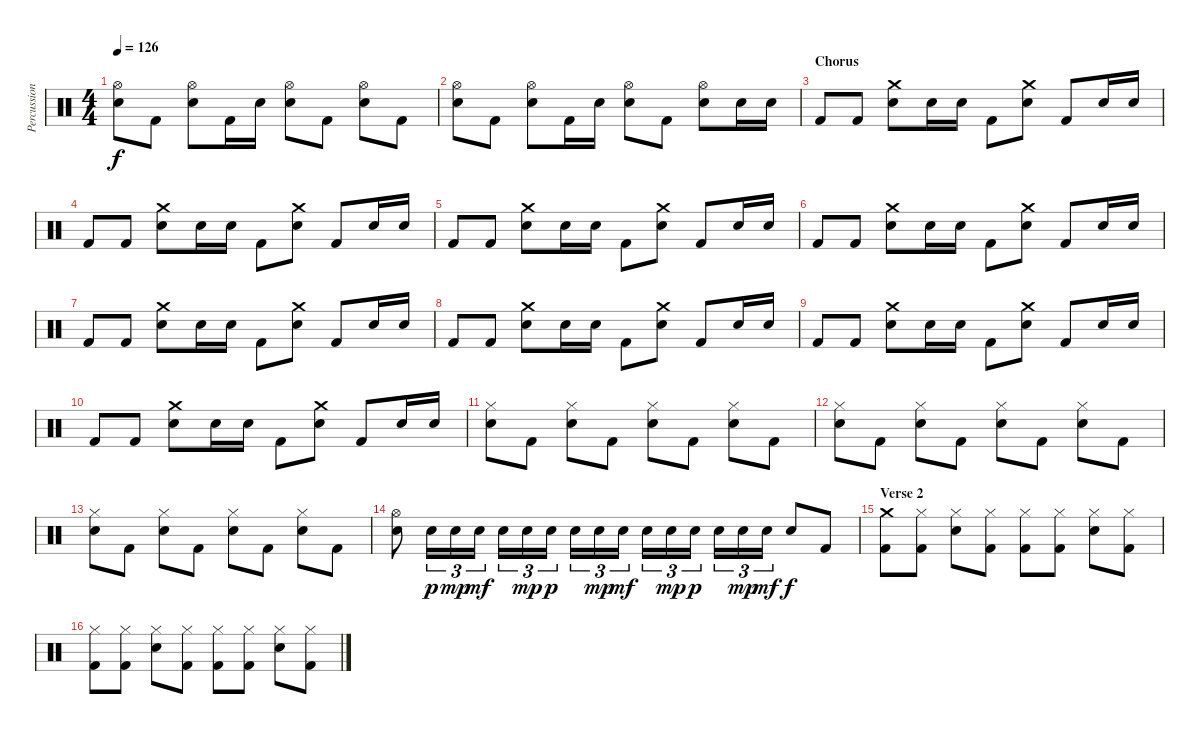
\track ("Percussion" "Percussion") {instrument percussion}
\staff {score}
\articulation defaults
\ts (4 4)
\tempo 126
\clef neutral
\ks c
("Hi-Hat (open)" "Electric Snare (hit)").8{dy f} "Kick (hit) 2".8 ("Hi-Hat (open)" "Electric Snare (hit)").8 "Kick (hit) 2".16 "Electric Snare (hit)".16 ("Hi-Hat (open)" "Electric Snare (hit)").8 "Kick (hit) 2".8 ("Hi-Hat (open)" "Electric Snare (hit)").8 "Kick (hit) 2".8 |
("Hi-Hat (open)" "Electric Snare (hit)").8 "Kick (hit) 2".8 ("Hi-Hat (open)" "Electric Snare (hit)").8 "Kick (hit) 2".16 "Electric Snare (hit)".16 ("Hi-Hat (open)" "Electric Snare (hit)").8 "Kick (hit) 2".8 ("Hi-Hat (open)" "Electric Snare (hit)").8 "Electric Snare (hit)".16 "Electric Snare (hit)".16 |
\section ("" "Chorus")
"Kick (hit) 2".8 "Kick (hit) 2".8 ("Crash medium (hit)" "Electric Snare (hit)").8 "Electric Snare (hit)".16 "Electric Snare (hit)".16 "Kick (hit) 2".8 ("Crash medium (hit)" "Electric Snare (hit)").8 "Kick (hit) 2".8 "Electric Snare (hit)".16 "Electric Snare (hit)".16 |
"Kick (hit) 2".8 "Kick (hit) 2".8 ("Crash medium (hit)" "Electric Snare (hit)").8 "Electric Snare (hit)".16 "Electric Snare (hit)".16 "Kick (hit) 2".8 ("Crash medium (hit)" "Electric Snare (hit)").8 "Kick (hit) 2".8 "Electric Snare (hit)".16 "Electric Snare (hit)".16 |
"Kick (hit) 2".8 "Kick (hit) 2".8 ("Crash medium (hit)" "Electric Snare (hit)").8 "Electric Snare (hit)".16 "Electric Snare (hit)".16 "Kick (hit) 2".8 ("Crash medium (hit)" "Electric Snare (hit)").8 "Kick (hit) 2".8 "Electric Snare (hit)".16 "Electric Snare (hit)".16 |
"Kick (hit) 2".8 "Kick (hit) 2".8 ("Crash medium (hit)" "Electric Snare (hit)").8 "Electric Snare (hit)".16 "Electric Snare (hit)".16 "Kick (hit) 2".8 ("Crash medium (hit)" "Electric Snare (hit)").8 "Kick (hit) 2".8 "Electric Snare (hit)".16 "Electric Snare (hit)".16 |
"Kick (hit) 2".8 "Kick (hit) 2".8 ("Crash medium (hit)" "Electric Snare (hit)").8 "Electric Snare (hit)".16 "Electric Snare (hit)".16 "Kick (hit) 2".8 ("Crash medium (hit)" "Electric Snare (hit)").8 "Kick (hit) 2".8 "Electric Snare (hit)".16 "Electric Snare (hit)".16 |
"Kick (hit) 2".8 "Kick (hit) 2".8 ("Crash medium (hit)" "Electric Snare (hit)").8 "Electric Snare (hit)".16 "Electric Snare (hit)".16 "Kick (hit) 2".8 ("Crash medium (hit)" "Electric Snare (hit)").8 "Kick (hit) 2".8 "Electric Snare (hit)".16 "Electric Snare (hit)".16 |
"Kick (hit) 2".8 "Kick (hit) 2".8 ("Crash medium (hit)" "Electric Snare (hit)").8 "Electric Snare (hit)".16 "Electric Snare (hit)".16 "Kick (hit) 2".8 ("Crash medium (hit)" "Electric Snare (hit)").8 "Kick (hit) 2".8 "Electric Snare (hit)".16 "Electric Snare (hit)".16 |
"Kick (hit) 2".8 "Kick (hit) 2".8 ("Crash medium (hit)" "Electric Snare (hit)").8 "Electric Snare (hit)".16 "Electric Snare (hit)".16 "Kick (hit) 2".8 ("Crash medium (hit)" "Electric Snare (hit)").8 "Kick (hit) 2".8 "Electric Snare (hit)".16 "Electric Snare (hit)".16 |
("Hi-Hat (closed)" "Electric Snare (hit)").8 "Kick (hit) 2".8 ("Hi-Hat (closed)" "Electric Snare (hit)").8 "Kick (hit) 2".8 ("Hi-Hat (closed)" "Electric Snare (hit)").8 "Kick (hit) 2".8 ("Hi-Hat (closed)" "Electric Snare (hit)").8 "Kick (hit) 2".8 |
("Hi-Hat (closed)" "Electric Snare (hit)").8 "Kick (hit) 2".8 ("Hi-Hat (closed)" "Electric Snare (hit)").8 "Kick (hit) 2".8 ("Hi-Hat (closed)" "Electric Snare (hit)").8 "Kick (hit) 2".8 ("Hi-Hat (closed)" "Electric Snare (hit)").8 "Kick (hit) 2".8 |
("Hi-Hat (closed)" "Electric Snare (hit)").8 "Kick (hit) 2".8 ("Hi-Hat (closed)" "Electric Snare (hit)").8 "Kick (hit) 2".8 ("Hi-Hat (closed)" "Electric Snare (hit)").8 "Kick (hit) 2".8 ("Hi-Hat (closed)" "Electric Snare (hit)").8 "Kick (hit) 2".8 |
("Hi-Hat (open)" "Electric Snare (hit)").8 "Electric Snare (hit)".16{tu (3 2) dy p} "Electric Snare (hit)".16{tu (3 2) dy mp} "Electric Snare (hit)".16{tu (3 2) dy mf} "Electric Snare (hit)".16{tu (3 2)} "Electric Snare (hit)".16{tu (3 2) dy mp} "Electric Snare (hit)".16{tu (3 2) dy p} "Electric Snare (hit)".16{tu (3 2)} "Electric Snare (hit)".16{tu (3 2) dy mp} "Electric Snare (hit)".16{tu (3 2) dy mf} "Electric Snare (hit)".16{tu (3 2)} "Electric Snare (hit)".16{tu (3 2) dy mp} "Electric Snare (hit)".16{tu (3 2) dy p} "Electric Snare (hit)".16{tu (3 2)} "Electric Snare (hit)".16{tu (3 2) dy mp} "Electric Snare (hit)".16{tu (3 2) dy mf} "Electric Snare (hit)".8{dy f} "Kick (hit) 2".8 |
\section ("" "Verse 2")
("Crash medium (hit)" "Kick (hit) 2").8 ("Hi-Hat (closed)" "Kick (hit) 2").8 ("Hi-Hat (closed)" "Electric Snare (hit)").8 ("Hi-Hat (closed)" "Kick (hit) 2").8 ("Hi-Hat (closed)" "Kick (hit) 2").8 ("Hi-Hat (closed)" "Kick (hit) 2").8 ("Hi-Hat (closed)" "Electric Snare (hit)").8 ("Hi-Hat (closed)" "Kick (hit) 2").8 |
("Hi-Hat (closed)" "Kick (hit) 2").8 ("Hi-Hat (closed)" "Kick (hit) 2").8 ("Hi-Hat (closed)" "Electric Snare (hit)").8 ("Hi-Hat (closed)" "Kick (hit) 2").8 ("Hi-Hat (closed)" "Kick (hit) 2").8 ("Hi-Hat (closed)" "Kick (hit) 2").8 ("Hi-Hat (closed)" "Electric Snare (hit)").8 ("Hi-Hat (closed)" "Kick (hit) 2").8
